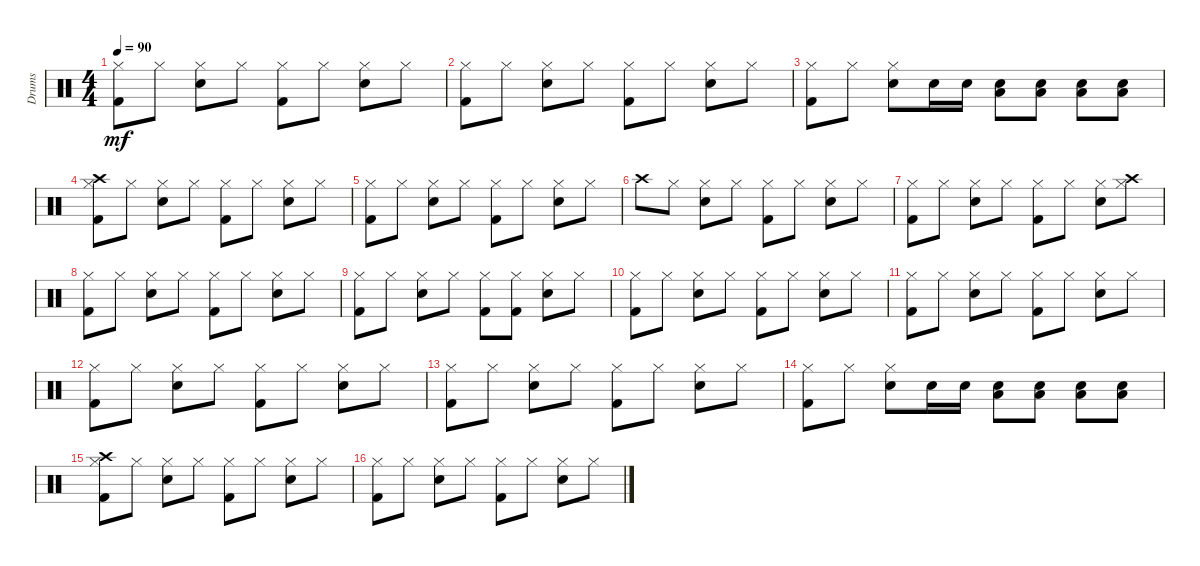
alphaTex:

\track ("Drums" "Drums") {instrument percussion}
\staff {score}
\articulation defaults
\ts (4 4)
\tempo 90
\clef neutral
\ks c
("Hi-Hat (closed)" "Kick (hit) 2").8{dy mf} "Hi-Hat (closed)".8 ("Hi-Hat (closed)" "Snare (hit) 2").8 "Hi-Hat (closed)".8 ("Hi-Hat (closed)" "Kick (hit) 2").8 "Hi-Hat (closed)".8 ("Hi-Hat (closed)" "Snare (hit) 2").8 "Hi-Hat (closed)".8 |
("Hi-Hat (closed)" "Kick (hit) 2").8 "Hi-Hat (closed)".8 ("Hi-Hat (closed)" "Snare (hit) 2").8 "Hi-Hat (closed)".8 ("Hi-Hat (closed)" "Kick (hit) 2").8 "Hi-Hat (closed)".8 ("Hi-Hat (closed)" "Snare (hit) 2").8 "Hi-Hat (closed)".8 |
("Hi-Hat (closed)" "Kick (hit) 2").8 "Hi-Hat (closed)".8 ("Hi-Hat (closed)" "Snare (hit) 2").8 "Snare (hit) 2".16 "Snare (hit) 2".16 ("Snare (hit) 2" "Low Floor Tom (hit)").8 ("Snare (hit) 2" "Low Floor Tom (hit)").8 ("Snare (hit) 2" "Low Floor Tom (hit)").8 ("Snare (hit) 2" "Low Floor Tom (hit)").8 |
("Hi-Hat (closed)" "Crash high (hit)" "Kick (hit) 2").8 "Hi-Hat (closed)".8 ("Hi-Hat (closed)" "Snare (hit) 2").8 "Hi-Hat (closed)".8 ("Hi-Hat (closed)" "Kick (hit) 2").8 "Hi-Hat (closed)".8 ("Hi-Hat (closed)" "Snare (hit) 2").8 "Hi-Hat (closed)".8 |
("Hi-Hat (closed)" "Kick (hit) 2").8 "Hi-Hat (closed)".8 ("Hi-Hat (closed)" "Snare (hit) 2").8 "Hi-Hat (closed)".8 ("Hi-Hat (closed)" "Kick (hit) 2").8 "Hi-Hat (closed)".8 ("Hi-Hat (closed)" "Snare (hit) 2").8 "Hi-Hat (closed)".8 |
"Crash high (hit)".8 "Hi-Hat (closed)".8 ("Hi-Hat (closed)" "Snare (hit) 2").8 "Hi-Hat (closed)".8 ("Hi-Hat (closed)" "Kick (hit) 2").8 "Hi-Hat (closed)".8 ("Hi-Hat (closed)" "Snare (hit) 2").8 "Hi-Hat (closed)".8 |
("Hi-Hat (closed)" "Kick (hit) 2").8 "Hi-Hat (closed)".8 ("Hi-Hat (closed)" "Snare (hit) 2").8 "Hi-Hat (closed)".8 ("Hi-Hat (closed)" "Kick (hit) 2").8 "Hi-Hat (closed)".8 ("Hi-Hat (closed)" "Snare (hit) 2").8 ("Hi-Hat (closed)" "Crash high (hit)").8 |
("Hi-Hat (closed)" "Kick (hit) 2").8 "Hi-Hat (closed)".8 ("Hi-Hat (closed)" "Snare (hit) 2").8 "Hi-Hat (closed)".8 ("Hi-Hat (closed)" "Kick (hit) 2").8 "Hi-Hat (closed)".8 ("Hi-Hat (closed)" "Snare (hit) 2").8 "Hi-Hat (closed)".8 |
("Hi-Hat (closed)" "Kick (hit) 2").8 "Hi-Hat (closed)".8 ("Hi-Hat (closed)" "Snare (hit) 2").8 "Hi-Hat (closed)".8 ("Hi-Hat (closed)" "Kick (hit) 2").8 ("Hi-Hat (closed)" "Kick (hit) 2").8 ("Hi-Hat (closed)" "Snare (hit) 2").8 "Hi-Hat (closed)".8 |
("Hi-Hat (closed)" "Kick (hit) 2").8 "Hi-Hat (closed)".8 ("Hi-Hat (closed)" "Snare (hit) 2").8 "Hi-Hat (closed)".8 ("Hi-Hat (closed)" "Kick (hit) 2").8 "Hi-Hat (closed)".8 ("Hi-Hat (closed)" "Snare (hit) 2").8 "Hi-Hat (closed)".8 |
("Hi-Hat (closed)" "Kick (hit) 2").8 "Hi-Hat (closed)".8 ("Hi-Hat (closed)" "Snare (hit) 2").8 "Hi-Hat (closed)".8 ("Hi-Hat (closed)" "Kick (hit) 2").8 "Hi-Hat (closed)".8 ("Hi-Hat (closed)" "Snare (hit) 2").8 "Hi-Hat (closed)".8 |
("Hi-Hat (closed)" "Kick (hit) 2").8 "Hi-Hat (closed)".8 ("Hi-Hat (closed)" "Snare (hit) 2").8 "Hi-Hat (closed)".8 ("Hi-Hat (closed)" "Kick (hit) 2").8 "Hi-Hat (closed)".8 ("Hi-Hat (closed)" "Snare (hit) 2").8 "Hi-Hat (closed)".8 |
("Hi-Hat (closed)" "Kick (hit) 2").8 "Hi-Hat (closed)".8 ("Hi-Hat (closed)" "Snare (hit) 2").8 "Hi-Hat (closed)".8 ("Hi-Hat (closed)" "Kick (hit) 2").8 "Hi-Hat (closed)".8 ("Hi-Hat (closed)" "Snare (hit) 2").8 "Hi-Hat (closed)".8 |
("Hi-Hat (closed)" "Kick (hit) 2").8 "Hi-Hat (closed)".8 ("Hi-Hat (closed)" "Snare (hit) 2").8 "Snare (hit) 2".16 "Snare (hit) 2".16 ("Snare (hit) 2" "Low Floor Tom (hit)").8 ("Snare (hit) 2" "Low Floor Tom (hit)").8 ("Snare (hit) 2" "Low Floor Tom (hit)").8 ("Snare (hit) 2" "Low Floor Tom (hit)").8 |
("Hi-Hat (closed)" "Crash high (hit)" "Kick (hit) 2").8 "Hi-Hat (closed)".8 ("Hi-Hat (closed)" "Snare (hit) 2").8 "Hi-Hat (closed)".8 ("Hi-Hat (closed)" "Kick (hit) 2").8 "Hi-Hat (closed)".8 ("Hi-Hat (closed)" "Snare (hit) 2").8 "Hi-Hat (closed)".8 |
("Hi-Hat (closed)" "Kick (hit) 2").8 "Hi-Hat (closed)".8 ("Hi-Hat (closed)" "Snare (hit) 2").8 "Hi-Hat (closed)".8 ("Hi-Hat (closed)" "Kick (hit) 2").8 "Hi-Hat (closed)".8 ("Hi-Hat (closed)" "Snare (hit) 2").8 "Hi-Hat (closed)".8
